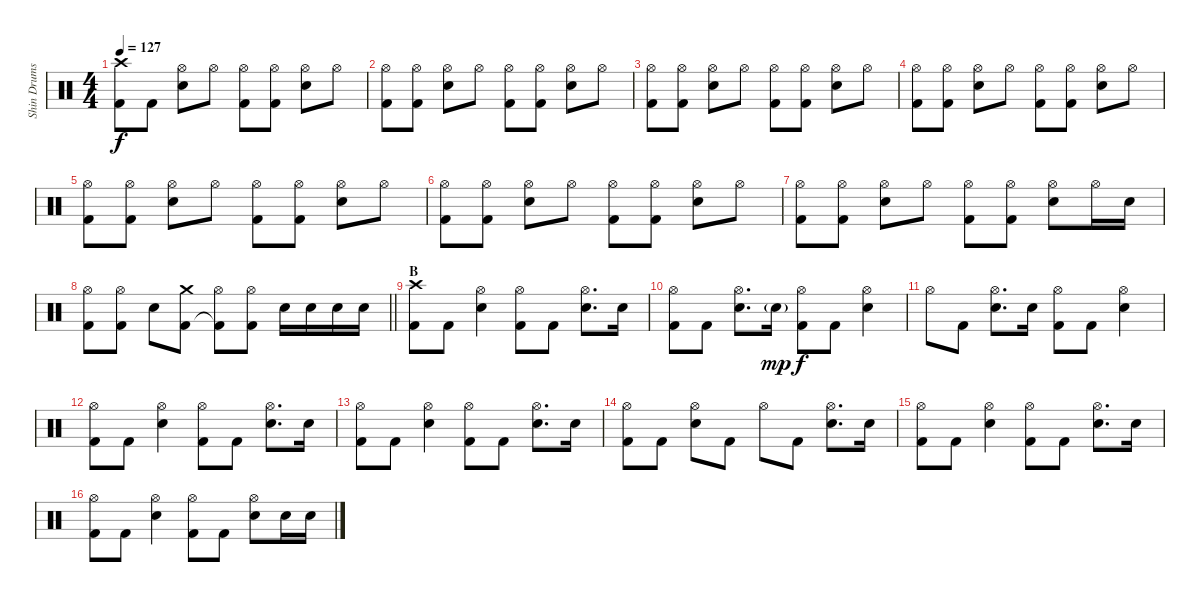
\track ("Shin Drums" "Shin Drums") {instrument percussion}
\staff {score}
\articulation defaults
\ts (4 4)
\tempo 127
\clef neutral
\ks c
("Crash high (hit)" "Kick (hit) 2").8{dy f} "Kick (hit) 2".8 ("Hi-Hat (open)" "Snare (hit) 2").8 "Hi-Hat (open)".8 ("Hi-Hat (open)" "Kick (hit) 2").8 ("Hi-Hat (open)" "Kick (hit) 2").8 ("Hi-Hat (open)" "Snare (hit) 2").8 "Hi-Hat (open)".8 |
("Hi-Hat (open)" "Kick (hit) 2").8 ("Hi-Hat (open)" "Kick (hit) 2").8 ("Hi-Hat (open)" "Snare (hit) 2").8 "Hi-Hat (open)".8 ("Hi-Hat (open)" "Kick (hit) 2").8 ("Hi-Hat (open)" "Kick (hit) 2").8 ("Hi-Hat (open)" "Snare (hit) 2").8 "Hi-Hat (open)".8 |
("Hi-Hat (open)" "Kick (hit) 2").8 ("Hi-Hat (open)" "Kick (hit) 2").8 ("Hi-Hat (open)" "Snare (hit) 2").8 "Hi-Hat (open)".8 ("Hi-Hat (open)" "Kick (hit) 2").8 ("Hi-Hat (open)" "Kick (hit) 2").8 ("Hi-Hat (open)" "Snare (hit) 2").8 "Hi-Hat (open)".8 |
("Hi-Hat (open)" "Kick (hit) 2").8 ("Hi-Hat (open)" "Kick (hit) 2").8 ("Hi-Hat (open)" "Snare (hit) 2").8 "Hi-Hat (open)".8 ("Hi-Hat (open)" "Kick (hit) 2").8 ("Hi-Hat (open)" "Kick (hit) 2").8 ("Hi-Hat (open)" "Snare (hit) 2").8 "Hi-Hat (open)".8 |
("Hi-Hat (open)" "Kick (hit) 2").8 ("Hi-Hat (open)" "Kick (hit) 2").8 ("Hi-Hat (open)" "Snare (hit) 2").8 "Hi-Hat (open)".8 ("Hi-Hat (open)" "Kick (hit) 2").8 ("Hi-Hat (open)" "Kick (hit) 2").8 ("Hi-Hat (open)" "Snare (hit) 2").8 "Hi-Hat (open)".8 |
("Hi-Hat (open)" "Kick (hit) 2").8 ("Hi-Hat (open)" "Kick (hit) 2").8 ("Hi-Hat (open)" "Snare (hit) 2").8 "Hi-Hat (open)".8 ("Hi-Hat (open)" "Kick (hit) 2").8 ("Hi-Hat (open)" "Kick (hit) 2").8 ("Hi-Hat (open)" "Snare (hit) 2").8 "Hi-Hat (open)".8 |
("Hi-Hat (open)" "Kick (hit) 2").8 ("Hi-Hat (open)" "Kick (hit) 2").8 ("Hi-Hat (open)" "Snare (hit) 2").8 "Hi-Hat (open)".8 ("Hi-Hat (open)" "Kick (hit) 2").8 ("Hi-Hat (open)" "Kick (hit) 2").8 ("Hi-Hat (open)" "Snare (hit) 2").8 "Hi-Hat (open)".16 "Snare (hit) 2".16 |
\barLineRight lightlight
("Hi-Hat (open)" "Kick (hit) 2").8 ("Hi-Hat (open)" "Kick (hit) 2").8 "Snare (hit) 2".8 ("Crash medium (hit)" "Kick (hit) 2").8 ("Hi-Hat (open)" "Kick (hit) 2"{t}).8 ("Hi-Hat (open)" "Kick (hit) 2").8 "Snare (hit) 2".16 "Snare (hit) 2".16 "Snare (hit) 2".16 "Snare (hit) 2".16 |
\section ("" "B")
("Crash high (hit)" "Kick (hit) 2").8 "Kick (hit) 2".8 ("Hi-Hat (open)" "Snare (hit) 2").4 ("Hi-Hat (open)" "Kick (hit) 2").8 "Kick (hit) 2".8 ("Hi-Hat (open)" "Snare (hit) 2").8{d} "Snare (hit) 2".16 |
("Hi-Hat (open)" "Kick (hit) 2").8 "Kick (hit) 2".8 ("Hi-Hat (open)" "Snare (hit) 2").8{d} "Snare (hit) 2"{g}.16{dy mp} ("Hi-Hat (open)" "Kick (hit) 2").8{dy f} "Kick (hit) 2".8 ("Hi-Hat (open)" "Snare (hit) 2").4 |
"Hi-Hat (open)".8 "Kick (hit) 2".8 ("Hi-Hat (open)" "Snare (hit) 2").8{d} "Snare (hit) 2".16 ("Hi-Hat (open)" "Kick (hit) 2").8 "Kick (hit) 2".8 ("Hi-Hat (open)" "Snare (hit) 2").4 |
("Hi-Hat (open)" "Kick (hit) 2").8 "Kick (hit) 2".8 ("Hi-Hat (open)" "Snare (hit) 2").4 ("Hi-Hat (open)" "Kick (hit) 2").8 "Kick (hit) 2".8 ("Hi-Hat (open)" "Snare (hit) 2").8{d} "Snare (hit) 2".16 |
("Hi-Hat (open)" "Kick (hit) 2").8 "Kick (hit) 2".8 ("Hi-Hat (open)" "Snare (hit) 2").4 ("Hi-Hat (open)" "Kick (hit) 2").8 "Kick (hit) 2".8 ("Hi-Hat (open)" "Snare (hit) 2").8{d} "Snare (hit) 2".16 |
("Hi-Hat (open)" "Kick (hit) 2").8 "Kick (hit) 2".8 ("Hi-Hat (open)" "Snare (hit) 2").8 "Kick (hit) 2".8 "Hi-Hat (open)".8 "Kick (hit) 2".8 ("Hi-Hat (open)" "Snare (hit) 2").8{d} "Snare (hit) 2".16 |
("Hi-Hat (open)" "Kick (hit) 2").8 "Kick (hit) 2".8 ("Hi-Hat (open)" "Snare (hit) 2").4 ("Hi-Hat (open)" "Kick (hit) 2").8 "Kick (hit) 2".8 ("Hi-Hat (open)" "Snare (hit) 2").8{d} "Snare (hit) 2".16 |
("Hi-Hat (open)" "Kick (hit) 2").8 "Kick (hit) 2".8 ("Hi-Hat (open)" "Snare (hit) 2").4 ("Hi-Hat (open)" "Kick (hit) 2").8 "Kick (hit) 2".8 ("Hi-Hat (open)" "Snare (hit) 2").8 "Snare (hit) 2".16 "Snare (hit) 2".16
